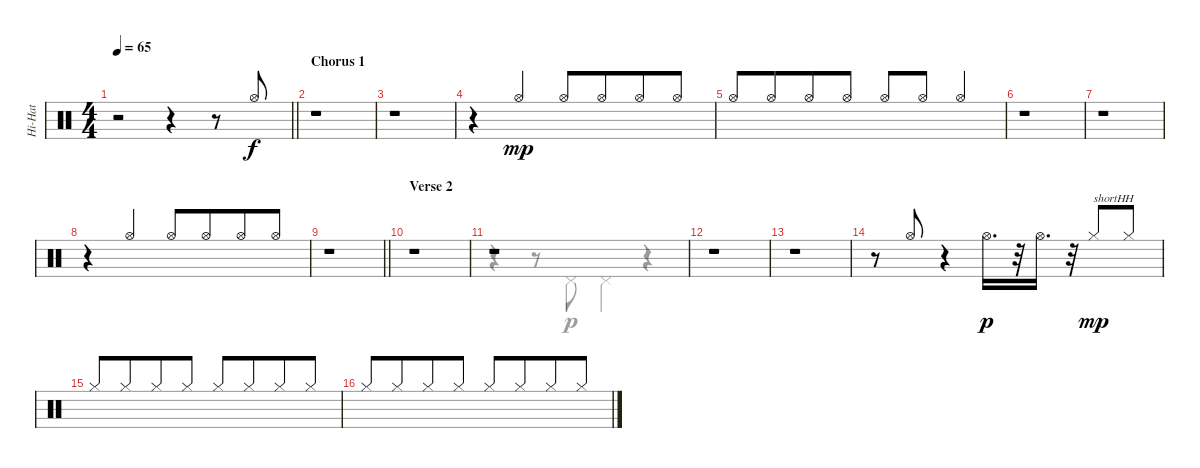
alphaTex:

\track ("Hi-Hat" "Hi-Hat") {instrument percussion}
\staff {score}
\articulation defaults
\voice
\ts (4 4)
\tempo 65
\clef neutral
\barLineRight lightlight
\ks c
r.2{dy ff} r.4 r.8 "Hi-Hat (open)".8{dy f beam Up} |
\section ("" "Chorus 1")
r.1 |
r.1 |
r.4 "Hi-Hat (open)".4{dy mp beam Up} "Hi-Hat (open)".8{beam Up} "Hi-Hat (open)".8{beam Up beam merge} "Hi-Hat (open)".8{beam Up} "Hi-Hat (open)".8{beam Up} |
"Hi-Hat (open)".8{beam Up} "Hi-Hat (open)".8{beam Up beam merge} "Hi-Hat (open)".8{beam Up} "Hi-Hat (open)".8{beam Up} "Hi-Hat (open)".8{beam Up} "Hi-Hat (open)".8{beam Up} "Hi-Hat (open)".4{beam Up} |
r.1 |
r.1 |
r.4 "Hi-Hat (open)".4{beam Up} "Hi-Hat (open)".8{beam Up} "Hi-Hat (open)".8{beam Up beam merge} "Hi-Hat (open)".8{beam Up} "Hi-Hat (open)".8{beam Up} |
\barLineRight lightlight
r.1 |
\section ("" "Verse 2")
r.1 |
r.1 |
r.1 |
r.1 |
r.8 "Hi-Hat (open)".8{beam Up} r.4 "Hi-Hat (open)".16{d dy p volume 13} r.32{volume 0} "Hi-Hat (open)".16{d volume 13} r.32{volume 0 beam merge} "Hi-Hat (closed)".8{txt "shortHH" dy mp volume 13 beam Up} "Hi-Hat (closed)".8{beam Up} |
"Hi-Hat (closed)".8{beam Up} "Hi-Hat (closed)".8{beam Up beam merge} "Hi-Hat (closed)".8{beam Up} "Hi-Hat (closed)".8{beam Up} "Hi-Hat (closed)".8{beam Up} "Hi-Hat (closed)".8{beam Up beam merge} "Hi-Hat (closed)".8{beam Up} "Hi-Hat (closed)".8{beam Up} |
"Hi-Hat (closed)".8{beam Up} "Hi-Hat (closed)".8{beam Up beam merge} "Hi-Hat (closed)".8{beam Up} "Hi-Hat (closed)".8{beam Up} "Hi-Hat (closed)".8{beam Up} "Hi-Hat (closed)".8{beam Up beam merge} "Hi-Hat (closed)".8{beam Up} "Hi-Hat (closed)".8{beam Up}
\voice
\clef neutral
\ottava regular
\simile none
\barLineRight lightlight
\ks c
|
|
|
|
|
|
|
|
\barLineRight lightlight
|
|
r.4 r.8 "Pedal Hi-Hat (hit)".8{dy p} "Pedal Hi-Hat (hit)".4 r.4 |
|
|
|
|
